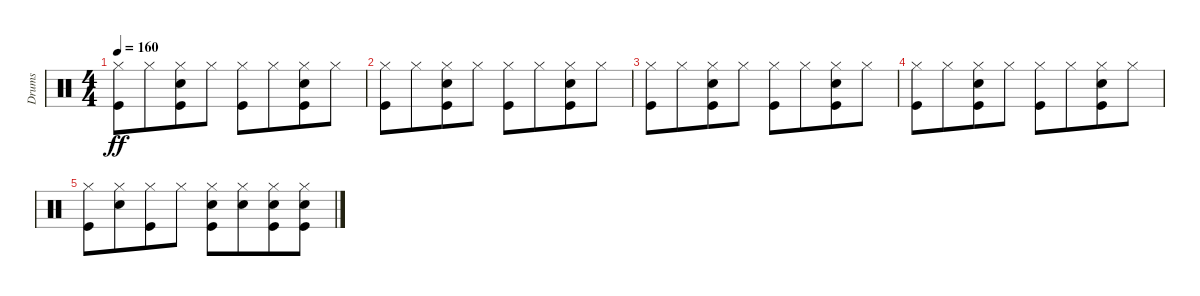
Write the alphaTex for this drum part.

\track ("Drums" "Drums") {instrument percussion}
\staff {score}
\articulation defaults
\ts (4 4)
\tempo 160
\clef neutral
\ks c
("Hi-Hat (closed)" "Kick (hit)").8{dy ff} "Hi-Hat (closed)".8{beam merge} ("Hi-Hat (closed)" "Snare (hit) 2" "Kick (hit)").8 "Hi-Hat (closed)".8 ("Hi-Hat (closed)" "Kick (hit)").8 "Hi-Hat (closed)".8{beam merge} ("Hi-Hat (closed)" "Snare (hit) 2" "Kick (hit)").8 "Hi-Hat (closed)".8 |
("Hi-Hat (closed)" "Kick (hit)").8 "Hi-Hat (closed)".8{beam merge} ("Hi-Hat (closed)" "Snare (hit) 2" "Kick (hit)").8 "Hi-Hat (closed)".8 ("Hi-Hat (closed)" "Kick (hit)").8 "Hi-Hat (closed)".8{beam merge} ("Hi-Hat (closed)" "Snare (hit) 2" "Kick (hit)").8 "Hi-Hat (closed)".8 |
("Hi-Hat (closed)" "Kick (hit)").8 "Hi-Hat (closed)".8{beam merge} ("Hi-Hat (closed)" "Snare (hit) 2" "Kick (hit)").8 "Hi-Hat (closed)".8 ("Hi-Hat (closed)" "Kick (hit)").8 "Hi-Hat (closed)".8{beam merge} ("Hi-Hat (closed)" "Snare (hit) 2" "Kick (hit)").8 "Hi-Hat (closed)".8 |
("Hi-Hat (closed)" "Kick (hit)").8 "Hi-Hat (closed)".8{beam merge} ("Hi-Hat (closed)" "Snare (hit) 2" "Kick (hit)").8 "Hi-Hat (closed)".8 ("Hi-Hat (closed)" "Kick (hit)").8 "Hi-Hat (closed)".8{beam merge} ("Hi-Hat (closed)" "Snare (hit) 2" "Kick (hit)").8 "Hi-Hat (closed)".8 |
("Hi-Hat (closed)" "Kick (hit)").8 ("Hi-Hat (closed)" "Snare (hit) 2").8{beam merge} ("Hi-Hat (closed)" "Kick (hit)").8 "Hi-Hat (closed)".8 ("Hi-Hat (closed)" "Snare (hit) 2" "Kick (hit)").8 ("Hi-Hat (closed)" "Snare (hit) 2").8{beam merge} ("Hi-Hat (closed)" "Snare (hit) 2" "Kick (hit)").8 ("Hi-Hat (closed)" "Snare (hit) 2" "Kick (hit)").8
